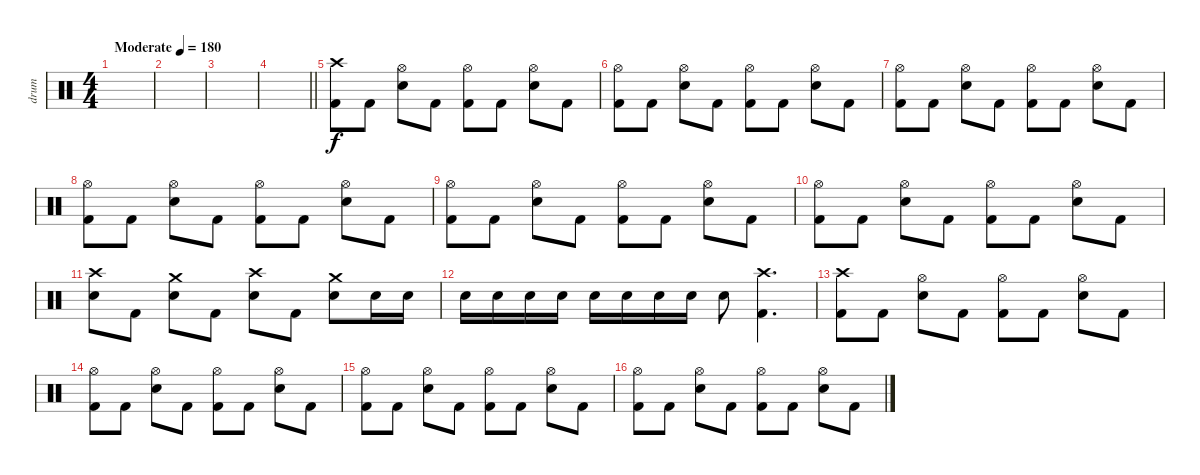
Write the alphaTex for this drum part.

\track ("drum" "drum") {instrument percussion}
\staff {score}
\articulation defaults
\ts (4 4)
\tempo (180 "Moderate")
\clef neutral
\ks c
|
|
|
\barLineRight lightlight
|
("Crash high (hit)" "Kick (hit) 2").8 "Kick (hit) 2".8 ("Hi-Hat (open)" "Snare (hit) 2").8 "Kick (hit) 2".8 ("Hi-Hat (open)" "Kick (hit) 2").8 "Kick (hit) 2".8 ("Hi-Hat (open)" "Snare (hit) 2").8 "Kick (hit) 2".8 |
("Hi-Hat (open)" "Kick (hit) 2").8 "Kick (hit) 2".8 ("Hi-Hat (open)" "Snare (hit) 2").8 "Kick (hit) 2".8 ("Hi-Hat (open)" "Kick (hit) 2").8 "Kick (hit) 2".8 ("Hi-Hat (open)" "Snare (hit) 2").8 "Kick (hit) 2".8 |
("Hi-Hat (open)" "Kick (hit) 2").8 "Kick (hit) 2".8 ("Hi-Hat (open)" "Snare (hit) 2").8 "Kick (hit) 2".8 ("Hi-Hat (open)" "Kick (hit) 2").8 "Kick (hit) 2".8 ("Hi-Hat (open)" "Snare (hit) 2").8 "Kick (hit) 2".8 |
("Hi-Hat (open)" "Kick (hit) 2").8 "Kick (hit) 2".8 ("Hi-Hat (open)" "Snare (hit) 2").8 "Kick (hit) 2".8 ("Hi-Hat (open)" "Kick (hit) 2").8 "Kick (hit) 2".8 ("Hi-Hat (open)" "Snare (hit) 2").8 "Kick (hit) 2".8 |
("Hi-Hat (open)" "Kick (hit) 2").8 "Kick (hit) 2".8 ("Hi-Hat (open)" "Snare (hit) 2").8 "Kick (hit) 2".8 ("Hi-Hat (open)" "Kick (hit) 2").8 "Kick (hit) 2".8 ("Hi-Hat (open)" "Snare (hit) 2").8 "Kick (hit) 2".8 |
("Hi-Hat (open)" "Kick (hit) 2").8 "Kick (hit) 2".8 ("Hi-Hat (open)" "Snare (hit) 2").8 "Kick (hit) 2".8 ("Hi-Hat (open)" "Kick (hit) 2").8 "Kick (hit) 2".8 ("Hi-Hat (open)" "Snare (hit) 2").8 "Kick (hit) 2".8 |
("Crash high (hit)" "Snare (hit) 2").8 "Kick (hit) 2".8 ("Crash medium (hit)" "Snare (hit) 2").8 "Kick (hit) 2".8 ("Crash high (hit)" "Snare (hit) 2").8 "Kick (hit) 2".8 ("Crash medium (hit)" "Snare (hit) 2").8 "Snare (hit) 2".16 "Snare (hit) 2".16 |
"Snare (hit) 2".16 "Snare (hit) 2".16 "Snare (hit) 2".16 "Snare (hit) 2".16 "Snare (hit) 2".16 "Snare (hit) 2".16 "Snare (hit) 2".16 "Snare (hit) 2".16 "Snare (hit) 2".8 ("Crash high (hit)" "Kick (hit) 2").4{d} |
("Crash high (hit)" "Kick (hit) 2").8 "Kick (hit) 2".8 ("Hi-Hat (open)" "Snare (hit) 2").8 "Kick (hit) 2".8 ("Hi-Hat (open)" "Kick (hit) 2").8 "Kick (hit) 2".8 ("Hi-Hat (open)" "Snare (hit) 2").8 "Kick (hit) 2".8 |
("Hi-Hat (open)" "Kick (hit) 2").8 "Kick (hit) 2".8 ("Hi-Hat (open)" "Snare (hit) 2").8 "Kick (hit) 2".8 ("Hi-Hat (open)" "Kick (hit) 2").8 "Kick (hit) 2".8 ("Hi-Hat (open)" "Snare (hit) 2").8 "Kick (hit) 2".8 |
("Hi-Hat (open)" "Kick (hit) 2").8 "Kick (hit) 2".8 ("Hi-Hat (open)" "Snare (hit) 2").8 "Kick (hit) 2".8 ("Hi-Hat (open)" "Kick (hit) 2").8 "Kick (hit) 2".8 ("Hi-Hat (open)" "Snare (hit) 2").8 "Kick (hit) 2".8 |
("Hi-Hat (open)" "Kick (hit) 2").8 "Kick (hit) 2".8 ("Hi-Hat (open)" "Snare (hit) 2").8 "Kick (hit) 2".8 ("Hi-Hat (open)" "Kick (hit) 2").8 "Kick (hit) 2".8 ("Hi-Hat (open)" "Snare (hit) 2").8 "Kick (hit) 2".8
